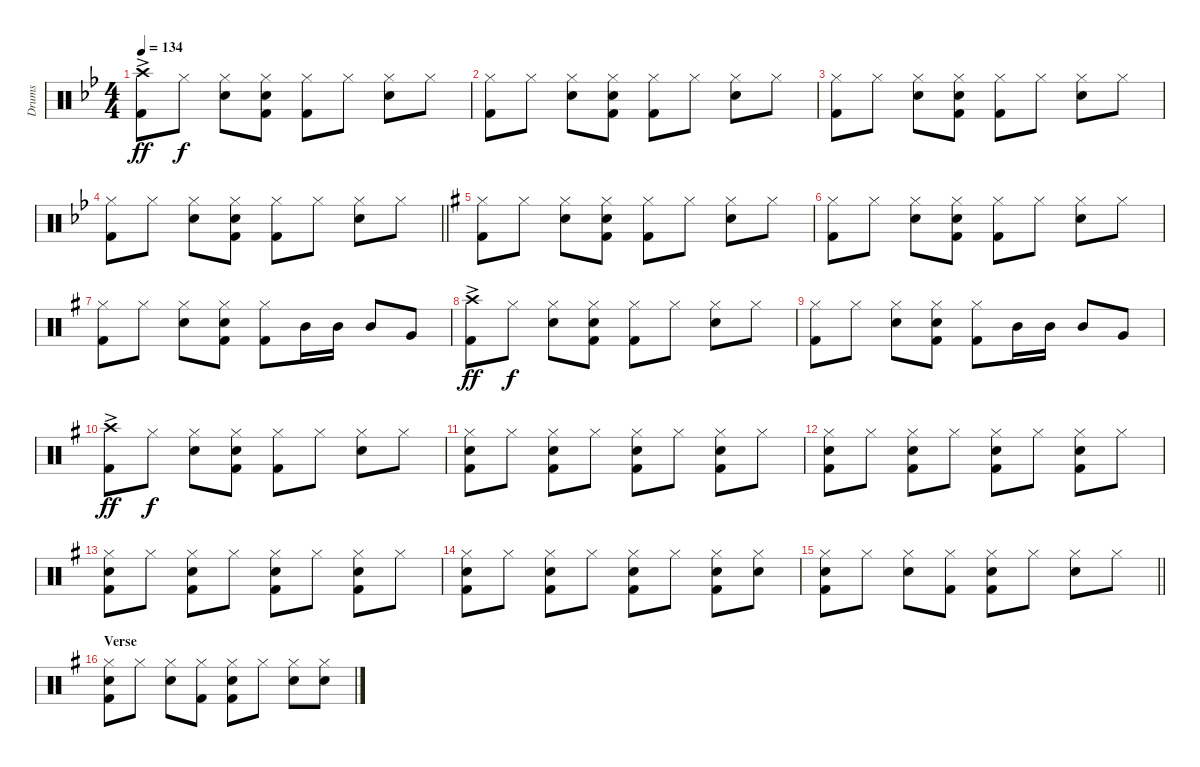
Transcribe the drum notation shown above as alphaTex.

\track ("Drums" "Drums") {instrument percussion}
\staff {score}
\articulation defaults
\ts (4 4)
\tempo 134
\clef neutral
\ks bb
("Crash high (hit)"{ac} "Kick (hit) 2").8{dy ff} "Hi-Hat (closed)".8{dy f} ("Hi-Hat (closed)" "Electric Snare (hit)").8 ("Hi-Hat (closed)" "Electric Snare (hit)" "Kick (hit) 2").8 ("Hi-Hat (closed)" "Kick (hit) 2").8 "Hi-Hat (closed)".8 ("Hi-Hat (closed)" "Electric Snare (hit)").8 "Hi-Hat (closed)".8 |
("Hi-Hat (closed)" "Kick (hit) 2").8 "Hi-Hat (closed)".8 ("Hi-Hat (closed)" "Electric Snare (hit)").8 ("Hi-Hat (closed)" "Electric Snare (hit)" "Kick (hit) 2").8 ("Hi-Hat (closed)" "Kick (hit) 2").8 "Hi-Hat (closed)".8 ("Hi-Hat (closed)" "Electric Snare (hit)").8 "Hi-Hat (closed)".8 |
("Hi-Hat (closed)" "Kick (hit) 2").8 "Hi-Hat (closed)".8 ("Hi-Hat (closed)" "Electric Snare (hit)").8 ("Hi-Hat (closed)" "Electric Snare (hit)" "Kick (hit) 2").8 ("Hi-Hat (closed)" "Kick (hit) 2").8 "Hi-Hat (closed)".8 ("Hi-Hat (closed)" "Electric Snare (hit)").8 "Hi-Hat (closed)".8 |
\barLineRight lightlight
("Hi-Hat (closed)" "Kick (hit) 2").8 "Hi-Hat (closed)".8 ("Hi-Hat (closed)" "Electric Snare (hit)").8 ("Hi-Hat (closed)" "Electric Snare (hit)" "Kick (hit) 2").8 ("Hi-Hat (closed)" "Kick (hit) 2").8 "Hi-Hat (closed)".8 ("Hi-Hat (closed)" "Electric Snare (hit)").8 "Hi-Hat (closed)".8 |
\section ("" "")
\ks g
("Hi-Hat (closed)" "Kick (hit) 2").8 "Hi-Hat (closed)".8 ("Hi-Hat (closed)" "Electric Snare (hit)").8 ("Hi-Hat (closed)" "Electric Snare (hit)" "Kick (hit) 2").8 ("Hi-Hat (closed)" "Kick (hit) 2").8 "Hi-Hat (closed)".8 ("Hi-Hat (closed)" "Electric Snare (hit)").8 "Hi-Hat (closed)".8 |
("Hi-Hat (closed)" "Kick (hit) 2").8 "Hi-Hat (closed)".8 ("Hi-Hat (closed)" "Electric Snare (hit)").8 ("Hi-Hat (closed)" "Electric Snare (hit)" "Kick (hit) 2").8 ("Hi-Hat (closed)" "Kick (hit) 2").8 "Hi-Hat (closed)".8 ("Hi-Hat (closed)" "Electric Snare (hit)").8 "Hi-Hat (closed)".8 |
("Hi-Hat (closed)" "Kick (hit) 2").8 "Hi-Hat (closed)".8 ("Hi-Hat (closed)" "Electric Snare (hit)").8 ("Hi-Hat (closed)" "Electric Snare (hit)" "Kick (hit) 2").8 ("Hi-Hat (closed)" "Kick (hit) 2").8 "Mid Tom (hit)".16 "Mid Tom (hit)".16 "Mid Tom (hit)".8 "Very Low Tom (hit)".8 |
("Crash high (hit)"{ac} "Kick (hit) 2").8{dy ff} "Hi-Hat (closed)".8{dy f} ("Hi-Hat (closed)" "Electric Snare (hit)").8 ("Hi-Hat (closed)" "Electric Snare (hit)" "Kick (hit) 2").8 ("Hi-Hat (closed)" "Kick (hit) 2").8 "Hi-Hat (closed)".8 ("Hi-Hat (closed)" "Electric Snare (hit)").8 "Hi-Hat (closed)".8 |
("Hi-Hat (closed)" "Kick (hit) 2").8 "Hi-Hat (closed)".8 ("Hi-Hat (closed)" "Electric Snare (hit)").8 ("Hi-Hat (closed)" "Electric Snare (hit)" "Kick (hit) 2").8 ("Hi-Hat (closed)" "Kick (hit) 2").8 "Mid Tom (hit)".16 "Mid Tom (hit)".16 "Mid Tom (hit)".8 "Very Low Tom (hit)".8 |
("Crash high (hit)"{ac} "Kick (hit) 2").8{dy ff} "Hi-Hat (closed)".8{dy f} ("Hi-Hat (closed)" "Electric Snare (hit)").8 ("Hi-Hat (closed)" "Electric Snare (hit)" "Kick (hit) 2").8 ("Hi-Hat (closed)" "Kick (hit) 2").8 "Hi-Hat (closed)".8 ("Hi-Hat (closed)" "Electric Snare (hit)").8 "Hi-Hat (closed)".8 |
("Hi-Hat (closed)" "Electric Snare (hit)" "Kick (hit) 2").8 "Hi-Hat (closed)".8 ("Hi-Hat (closed)" "Electric Snare (hit)" "Kick (hit) 2").8 "Hi-Hat (closed)".8 ("Hi-Hat (closed)" "Electric Snare (hit)" "Kick (hit) 2").8 "Hi-Hat (closed)".8 ("Hi-Hat (closed)" "Electric Snare (hit)" "Kick (hit) 2").8 "Hi-Hat (closed)".8 |
("Hi-Hat (closed)" "Electric Snare (hit)" "Kick (hit) 2").8 "Hi-Hat (closed)".8 ("Hi-Hat (closed)" "Electric Snare (hit)" "Kick (hit) 2").8 "Hi-Hat (closed)".8 ("Hi-Hat (closed)" "Electric Snare (hit)" "Kick (hit) 2").8 "Hi-Hat (closed)".8 ("Hi-Hat (closed)" "Electric Snare (hit)" "Kick (hit) 2").8 "Hi-Hat (closed)".8 |
("Hi-Hat (closed)" "Electric Snare (hit)" "Kick (hit) 2").8 "Hi-Hat (closed)".8 ("Hi-Hat (closed)" "Electric Snare (hit)" "Kick (hit) 2").8 "Hi-Hat (closed)".8 ("Hi-Hat (closed)" "Electric Snare (hit)" "Kick (hit) 2").8 "Hi-Hat (closed)".8 ("Hi-Hat (closed)" "Electric Snare (hit)" "Kick (hit) 2").8 "Hi-Hat (closed)".8 |
("Hi-Hat (closed)" "Electric Snare (hit)" "Kick (hit) 2").8 "Hi-Hat (closed)".8 ("Hi-Hat (closed)" "Electric Snare (hit)" "Kick (hit) 2").8 "Hi-Hat (closed)".8 ("Hi-Hat (closed)" "Electric Snare (hit)" "Kick (hit) 2").8 "Hi-Hat (closed)".8 ("Hi-Hat (closed)" "Electric Snare (hit)" "Kick (hit) 2").8 ("Hi-Hat (closed)" "Electric Snare (hit)").8 |
\barLineRight lightlight
("Hi-Hat (closed)" "Electric Snare (hit)" "Kick (hit) 2").8 "Hi-Hat (closed)".8 ("Hi-Hat (closed)" "Electric Snare (hit)").8 ("Hi-Hat (closed)" "Kick (hit) 2").8 ("Hi-Hat (closed)" "Electric Snare (hit)" "Kick (hit) 2").8 "Hi-Hat (closed)".8 ("Hi-Hat (closed)" "Electric Snare (hit)").8 "Hi-Hat (closed)".8 |
\section ("" "Verse")
("Hi-Hat (closed)" "Electric Snare (hit)" "Kick (hit) 2").8 "Hi-Hat (closed)".8 ("Hi-Hat (closed)" "Electric Snare (hit)").8 ("Hi-Hat (closed)" "Kick (hit) 2").8 ("Hi-Hat (closed)" "Electric Snare (hit)" "Kick (hit) 2").8 "Hi-Hat (closed)".8 ("Hi-Hat (closed)" "Electric Snare (hit)").8 ("Hi-Hat (closed)" "Electric Snare (hit)").8
